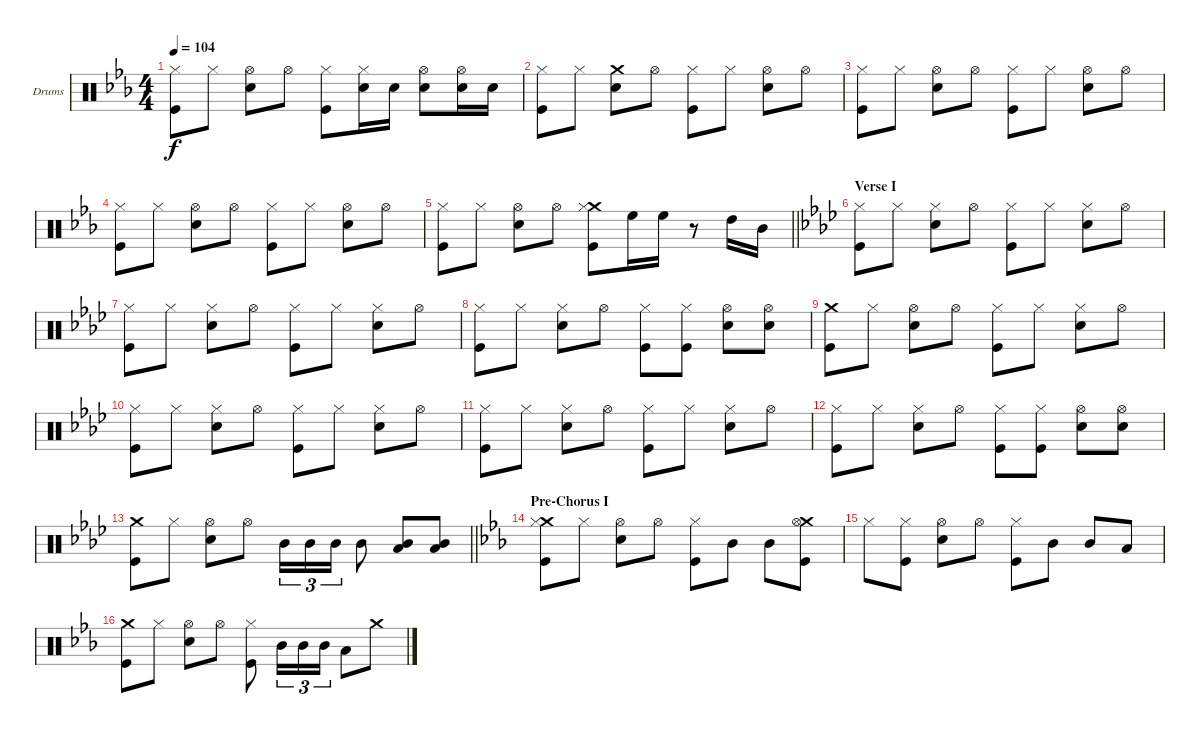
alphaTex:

\bracketExtendMode groupsimilarinstruments
\firstSystemTrackNameOrientation horizontal
\otherSystemsTrackNameOrientation horizontal
\track ("Drumkit" "Drums") {instrument percussion}
\staff {score}
\articulation defaults
\ts (4 4)
\tempo 104
\clef neutral
\ks eb
("Hi-Hat (closed)" "Kick (hit)").8{dy f} "Hi-Hat (closed)".8 ("Hi-Hat (open)" "Snare (hit) 2").8 "Hi-Hat (open)".8 ("Hi-Hat (closed)" "Kick (hit)").8 ("Hi-Hat (closed)" "Snare (hit) 2").16 "Snare (hit) 2".16 ("Hi-Hat (open)" "Snare (hit) 2").8 ("Hi-Hat (open)" "Snare (hit) 2").16 "Snare (hit) 2".16 |
("Hi-Hat (closed)" "Kick (hit)").8 "Hi-Hat (closed)".8 ("Crash medium (hit)" "Snare (hit) 2").8 "Hi-Hat (open)".8 ("Hi-Hat (closed)" "Kick (hit)").8 "Hi-Hat (closed)".8 ("Hi-Hat (open)" "Snare (hit) 2").8 "Hi-Hat (open)".8 |
("Hi-Hat (closed)" "Kick (hit)").8 "Hi-Hat (closed)".8 ("Hi-Hat (open)" "Snare (hit) 2").8 "Hi-Hat (open)".8 ("Hi-Hat (closed)" "Kick (hit)").8 "Hi-Hat (closed)".8 ("Hi-Hat (open)" "Snare (hit) 2").8 "Hi-Hat (open)".8 |
("Hi-Hat (closed)" "Kick (hit)").8 "Hi-Hat (closed)".8 ("Hi-Hat (open)" "Snare (hit) 2").8 "Hi-Hat (open)".8 ("Hi-Hat (closed)" "Kick (hit)").8 "Hi-Hat (closed)".8 ("Hi-Hat (open)" "Snare (hit) 2").8 "Hi-Hat (open)".8 |
\barLineRight lightlight
("Hi-Hat (closed)" "Kick (hit)").8 "Hi-Hat (closed)".8 ("Hi-Hat (open)" "Snare (hit) 2").8 "Hi-Hat (open)".8 ("Crash medium (hit)" "Hi-Hat (closed)" "Kick (hit)").8 "High Floor Tom (hit)".16 "High Floor Tom (hit)".16 r.8 "High Tom (hit)".16 "Mid Tom (hit)".16 |
\section ("" "Verse I")
\ks ab
("Hi-Hat (closed)" "Kick (hit)").8 "Hi-Hat (closed)".8 ("Hi-Hat (closed)" "Snare (hit) 2").8 "Hi-Hat (open)".8 ("Hi-Hat (closed)" "Kick (hit)").8 "Hi-Hat (closed)".8 ("Hi-Hat (closed)" "Snare (hit) 2").8 "Hi-Hat (open)".8 |
("Hi-Hat (closed)" "Kick (hit)").8 "Hi-Hat (closed)".8 ("Hi-Hat (closed)" "Snare (hit) 2").8 "Hi-Hat (open)".8 ("Hi-Hat (closed)" "Kick (hit)").8 "Hi-Hat (closed)".8 ("Hi-Hat (closed)" "Snare (hit) 2").8 "Hi-Hat (open)".8 |
("Hi-Hat (closed)" "Kick (hit)").8 "Hi-Hat (closed)".8 ("Hi-Hat (closed)" "Snare (hit) 2").8 "Hi-Hat (open)".8 ("Hi-Hat (closed)" "Kick (hit)").8 ("Hi-Hat (closed)" "Kick (hit)").8 ("Hi-Hat (open)" "Snare (hit) 2").8 ("Hi-Hat (open)" "Snare (hit) 2").8 |
("Crash medium (hit)" "Kick (hit)").8 "Hi-Hat (closed)".8 ("Hi-Hat (open)" "Snare (hit) 2").8 "Hi-Hat (open)".8 ("Hi-Hat (closed)" "Kick (hit)").8 "Hi-Hat (closed)".8 ("Hi-Hat (closed)" "Snare (hit) 2").8 "Hi-Hat (open)".8 |
("Hi-Hat (closed)" "Kick (hit)").8 "Hi-Hat (closed)".8 ("Hi-Hat (closed)" "Snare (hit) 2").8 "Hi-Hat (open)".8 ("Hi-Hat (closed)" "Kick (hit)").8 "Hi-Hat (closed)".8 ("Hi-Hat (closed)" "Snare (hit) 2").8 "Hi-Hat (open)".8 |
("Hi-Hat (closed)" "Kick (hit)").8 "Hi-Hat (closed)".8 ("Hi-Hat (closed)" "Snare (hit) 2").8 "Hi-Hat (open)".8 ("Hi-Hat (closed)" "Kick (hit)").8 "Hi-Hat (closed)".8 ("Hi-Hat (closed)" "Snare (hit) 2").8 "Hi-Hat (open)".8 |
("Hi-Hat (closed)" "Kick (hit)").8 "Hi-Hat (closed)".8 ("Hi-Hat (closed)" "Snare (hit) 2").8 "Hi-Hat (open)".8 ("Hi-Hat (closed)" "Kick (hit)").8 ("Hi-Hat (closed)" "Kick (hit)").8 ("Hi-Hat (open)" "Snare (hit) 2").8 ("Hi-Hat (open)" "Snare (hit) 2").8 |
\barLineRight lightlight
("Crash medium (hit)" "Kick (hit)").8 "Hi-Hat (closed)".8 ("Hi-Hat (open)" "Snare (hit) 2").8 "Hi-Hat (open)".8 "Mid Tom (hit)".16{tu (3 2)} "Mid Tom (hit)".16{tu (3 2)} "Mid Tom (hit)".16{tu (3 2)} "Mid Tom (hit)".8 ("Mid Tom (hit)" "Low Tom (hit)").8 ("Mid Tom (hit)" "Low Tom (hit)").8 |
\section ("" "Pre-Chorus I")
\ks eb
("Crash medium (hit)" "Hi-Hat (closed)" "Kick (hit)").8 "Hi-Hat (closed)".8 ("Hi-Hat (open)" "Snare (hit) 2").8 "Hi-Hat (open)".8 ("Hi-Hat (closed)" "Kick (hit)").8 "Mid Tom (hit)".8 "Mid Tom (hit)".8 ("Crash medium (hit)" "Hi-Hat (open)" "Kick (hit)").8 |
"Hi-Hat (closed)".8 ("Hi-Hat (closed)" "Kick (hit)").8 ("Hi-Hat (open)" "Snare (hit) 2").8 "Hi-Hat (open)".8 ("Hi-Hat (closed)" "Kick (hit)").8 "Mid Tom (hit)".8 "Mid Tom (hit)".8 "Low Tom (hit)".8 |
("Crash medium (hit)" "Kick (hit)").8 "Hi-Hat (closed)".8 ("Hi-Hat (open)" "Snare (hit) 2").8 "Hi-Hat (open)".8 ("Hi-Hat (closed)" "Kick (hit)").8 "Mid Tom (hit)".16{tu (3 2)} "Mid Tom (hit)".16{tu (3 2)} "Mid Tom (hit)".16{tu (3 2)} "Low Tom (hit)".8 "Crash medium (hit)".8
